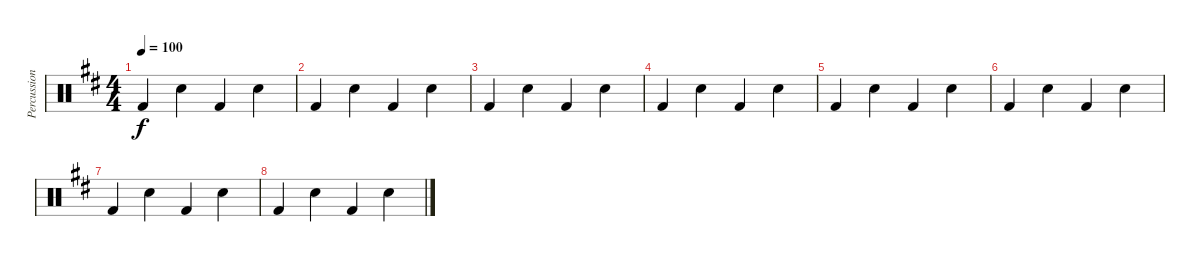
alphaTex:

\track ("Percussion" "Percussion") {instrument percussion}
\staff {score}
\articulation defaults
\ts (4 4)
\tempo 100
\clef neutral
\ks d "Kick (hit) 2".4{dy f} "Electric Snare (hit)".4 "Kick (hit) 2".4 "Electric Snare (hit)".4
|
"Kick (hit) 2".4 "Electric Snare (hit)".4 "Kick (hit) 2".4 "Electric Snare (hit)".4 |
"Kick (hit) 2".4 "Electric Snare (hit)".4 "Kick (hit) 2".4 "Electric Snare (hit)".4 |
"Kick (hit) 2".4 "Electric Snare (hit)".4 "Kick (hit) 2".4 "Electric Snare (hit)".4 |
"Kick (hit) 2".4 "Electric Snare (hit)".4 "Kick (hit) 2".4 "Electric Snare (hit)".4 |
"Kick (hit) 2".4 "Electric Snare (hit)".4 "Kick (hit) 2".4 "Electric Snare (hit)".4 |
"Kick (hit) 2".4 "Electric Snare (hit)".4 "Kick (hit) 2".4 "Electric Snare (hit)".4 |
"Kick (hit) 2".4 "Electric Snare (hit)".4 "Kick (hit) 2".4 "Electric Snare (hit)".4
